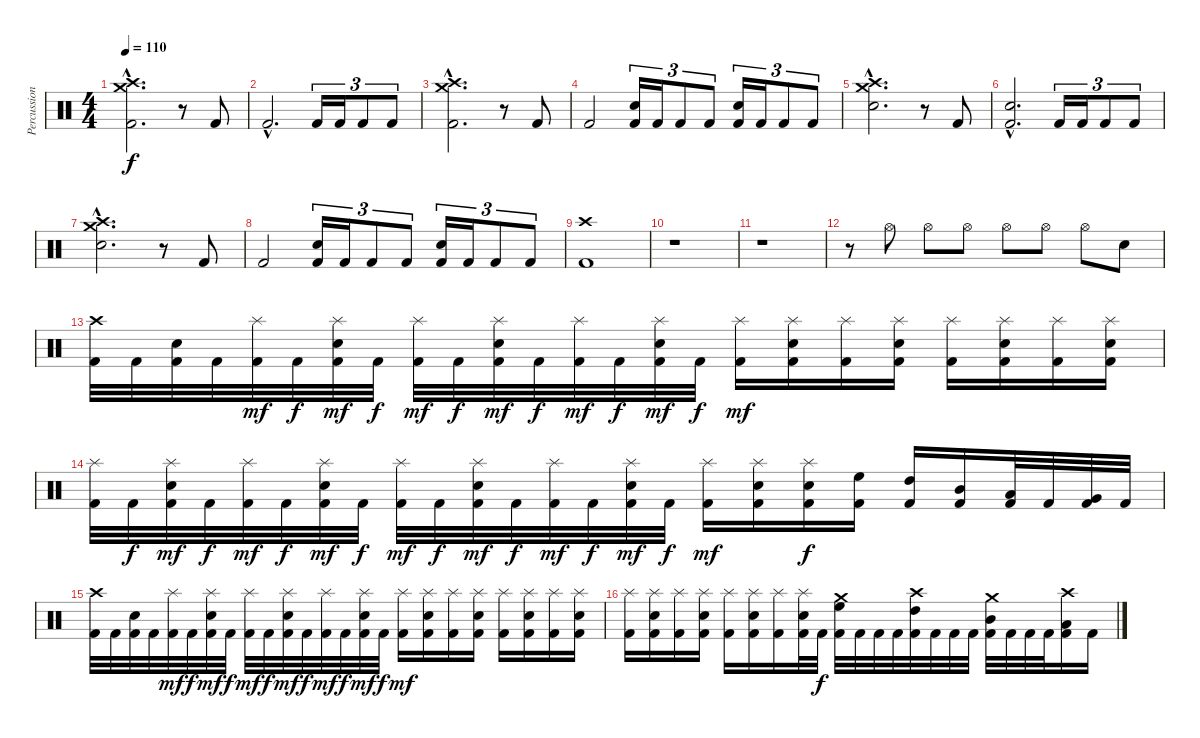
\track ("Percussion" "Percussion") {instrument percussion}
\staff {score}
\articulation defaults
\ts (4 4)
\tempo 110
\clef neutral
\ks c
("Crash high (hit)"{hac} "Crash medium (hit)"{hac} "Kick (hit) 2"{hac}).2{d dy f} r.8 "Kick (hit) 2".8 |
"Kick (hit) 2"{hac}.2{d} "Kick (hit) 2".16{tu (3 2)} "Kick (hit) 2".16{tu (3 2)} "Kick (hit) 2".8{tu (3 2)} "Kick (hit) 2".8{tu (3 2)} |
("Crash high (hit)"{hac} "Crash medium (hit)"{hac} "Kick (hit) 2"{hac}).2{d} r.8 "Kick (hit) 2".8 |
"Kick (hit) 2".2 ("Snare (hit) 2" "Kick (hit) 2").16{tu (3 2)} "Kick (hit) 2".16{tu (3 2)} "Kick (hit) 2".8{tu (3 2)} "Kick (hit) 2".8{tu (3 2)} ("Snare (hit) 2" "Kick (hit) 2").16{tu (3 2)} "Kick (hit) 2".16{tu (3 2)} "Kick (hit) 2".8{tu (3 2)} "Kick (hit) 2".8{tu (3 2)} |
("Crash high (hit)"{hac} "Crash medium (hit)"{hac} "Snare (hit) 2"{hac}).2{d} r.8 "Kick (hit) 2".8 |
("Snare (hit) 2"{hac} "Kick (hit) 2"{hac}).2{d} "Kick (hit) 2".16{tu (3 2)} "Kick (hit) 2".16{tu (3 2)} "Kick (hit) 2".8{tu (3 2)} "Kick (hit) 2".8{tu (3 2)} |
("Crash high (hit)"{hac} "Crash medium (hit)"{hac} "Snare (hit) 2"{hac}).2{d} r.8 "Kick (hit) 2".8 |
"Kick (hit) 2".2 ("Snare (hit) 2" "Kick (hit) 2").16{tu (3 2)} "Kick (hit) 2".16{tu (3 2)} "Kick (hit) 2".8{tu (3 2)} "Kick (hit) 2".8{tu (3 2)} ("Snare (hit) 2" "Kick (hit) 2").16{tu (3 2)} "Kick (hit) 2".16{tu (3 2)} "Kick (hit) 2".8{tu (3 2)} "Kick (hit) 2".8{tu (3 2)} |
("Crash high (hit)" "Kick (hit) 2").1 |
r.1 |
r.1 |
r.8 "Hi-Hat (open)".8 "Hi-Hat (open)".8 "Hi-Hat (open)".8 "Hi-Hat (open)".8 "Hi-Hat (open)".8 "Hi-Hat (open)".8 "Electric Snare (hit)".8 |
\section ("" "")
("Crash high (hit)" "Kick (hit) 2").32 "Kick (hit) 2".32 ("Snare (hit) 2" "Kick (hit) 2").32 "Kick (hit) 2".32 ("Splash (hit)" "Kick (hit) 2").32{dy mf} "Kick (hit) 2".32{dy f} ("Splash (hit)" "Snare (hit) 2" "Kick (hit) 2").32{dy mf} "Kick (hit) 2".32{dy f} ("Splash (hit)" "Kick (hit) 2").32{dy mf} "Kick (hit) 2".32{dy f} ("Splash (hit)" "Snare (hit) 2" "Kick (hit) 2").32{dy mf} "Kick (hit) 2".32{dy f} ("Splash (hit)" "Kick (hit) 2").32{dy mf} "Kick (hit) 2".32{dy f} ("Splash (hit)" "Snare (hit) 2" "Kick (hit) 2").32{dy mf} "Kick (hit) 2".32{dy f} ("Splash (hit)" "Kick (hit) 2").16{dy mf} ("Splash (hit)" "Snare (hit) 2" "Kick (hit) 2").16 ("Splash (hit)" "Kick (hit) 2").16 ("Splash (hit)" "Snare (hit) 2" "Kick (hit) 2").16 ("Splash (hit)" "Kick (hit) 2").16 ("Splash (hit)" "Snare (hit) 2" "Kick (hit) 2").16 ("Splash (hit)" "Kick (hit) 2").16 ("Splash (hit)" "Snare (hit) 2" "Kick (hit) 2").16 |
("Splash (hit)" "Kick (hit) 2").32 "Kick (hit) 2".32{dy f} ("Splash (hit)" "Snare (hit) 2" "Kick (hit) 2").32{dy mf} "Kick (hit) 2".32{dy f} ("Splash (hit)" "Kick (hit) 2").32{dy mf} "Kick (hit) 2".32{dy f} ("Splash (hit)" "Snare (hit) 2" "Kick (hit) 2").32{dy mf} "Kick (hit) 2".32{dy f} ("Splash (hit)" "Kick (hit) 2").32{dy mf} "Kick (hit) 2".32{dy f} ("Splash (hit)" "Snare (hit) 2" "Kick (hit) 2").32{dy mf} "Kick (hit) 2".32{dy f} ("Splash (hit)" "Kick (hit) 2").32{dy mf} "Kick (hit) 2".32{dy f} ("Splash (hit)" "Snare (hit) 2" "Kick (hit) 2").32{dy mf} "Kick (hit) 2".32{dy f} ("Splash (hit)" "Kick (hit) 2").16{dy mf} ("Splash (hit)" "Snare (hit) 2" "Kick (hit) 2").16 ("Splash (hit)" "Snare (hit) 2" "Kick (hit) 2").16{dy f} ("High Floor Tom (hit)" "Kick (hit) 2").16 ("High Tom (hit)" "Kick (hit) 2").16 ("Mid Tom (hit)" "Kick (hit) 2").16 ("Low Tom (hit)" "Kick (hit) 2").32 "Kick (hit) 2".32 ("Very Low Tom (hit)" "Kick (hit) 2").32 "Kick (hit) 2".32 |
("Crash high (hit)" "Kick (hit) 2").32 "Kick (hit) 2".32 ("Snare (hit) 2" "Kick (hit) 2").32 "Kick (hit) 2".32 ("Splash (hit)" "Kick (hit) 2").32{dy mf} "Kick (hit) 2".32{dy f} ("Splash (hit)" "Snare (hit) 2" "Kick (hit) 2").32{dy mf} "Kick (hit) 2".32{dy f} ("Splash (hit)" "Kick (hit) 2").32{dy mf} "Kick (hit) 2".32{dy f} ("Splash (hit)" "Snare (hit) 2" "Kick (hit) 2").32{dy mf} "Kick (hit) 2".32{dy f} ("Splash (hit)" "Kick (hit) 2").32{dy mf} "Kick (hit) 2".32{dy f} ("Splash (hit)" "Snare (hit) 2" "Kick (hit) 2").32{dy mf} "Kick (hit) 2".32{dy f} ("Splash (hit)" "Kick (hit) 2").16{dy mf} ("Splash (hit)" "Snare (hit) 2" "Kick (hit) 2").16 ("Splash (hit)" "Kick (hit) 2").16 ("Splash (hit)" "Snare (hit) 2" "Kick (hit) 2").16 ("Splash (hit)" "Kick (hit) 2").16 ("Splash (hit)" "Snare (hit) 2" "Kick (hit) 2").16 ("Splash (hit)" "Kick (hit) 2").16 ("Splash (hit)" "Snare (hit) 2" "Kick (hit) 2").16 |
("Splash (hit)" "Kick (hit) 2").16 ("Splash (hit)" "Snare (hit) 2" "Kick (hit) 2").16 ("Splash (hit)" "Kick (hit) 2").16 ("Splash (hit)" "Snare (hit) 2" "Kick (hit) 2").16 ("Splash (hit)" "Kick (hit) 2").16 ("Splash (hit)" "Snare (hit) 2" "Kick (hit) 2").16 ("Splash (hit)" "Kick (hit) 2").16 ("Splash (hit)" "Snare (hit) 2" "Kick (hit) 2").32 "Kick (hit) 2".32{dy f} ("Crash medium (hit)" "High Floor Tom (hit)" "Kick (hit) 2").32 "Kick (hit) 2".32 "Kick (hit) 2".32 "Kick (hit) 2".32 ("Crash high (hit)" "High Tom (hit)" "Kick (hit) 2").32 "Kick (hit) 2".32 "Kick (hit) 2".32 "Kick (hit) 2".32 ("Crash medium (hit)" "Mid Tom (hit)" "Kick (hit) 2").32 "Kick (hit) 2".32 "Kick (hit) 2".32 "Kick (hit) 2".32 ("Crash high (hit)" "Low Tom (hit)" "Kick (hit) 2").16 "Kick (hit) 2".16
